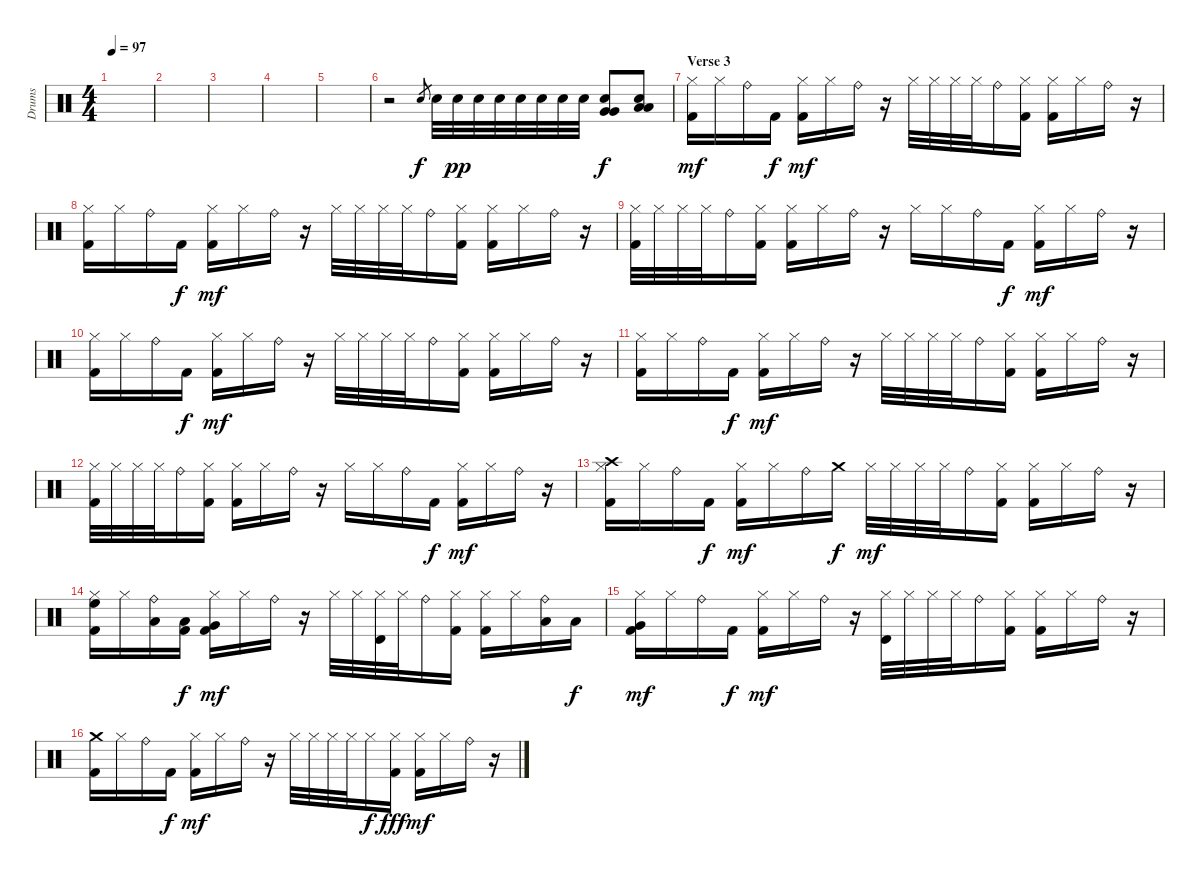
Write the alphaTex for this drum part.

\track ("Drums" "Drums") {instrument percussion}
\staff {score}
\articulation defaults
\ts (4 4)
\tempo 97
\clef neutral
\ks c
|
|
|
|
|
r.2 "Electric Snare (hit)".8{gr} "Electric Snare (hit)".32 "Electric Snare (hit)".32{dy pp} "Electric Snare (hit)".32 "Electric Snare (hit)".32 "Electric Snare (hit)".32 "Electric Snare (hit)".32 "Electric Snare (hit)".32 "Electric Snare (hit)".32 ("Electric Snare (hit)" "Very Low Tom (hit)" "Very Low Tom (hit)").8{dy f} ("Electric Snare (hit)" "Low Tom (hit)" "Low Tom (hit)").8 |
\section ("" "Verse 3")
("Hi-Hat (closed)" "Kick (hit) 2").16{dy mf} "Hi-Hat (closed)".16 "Ride (bell)".16 "Kick (hit) 2".16{dy f} ("Hi-Hat (closed)" "Kick (hit) 2").16{dy mf} "Hi-Hat (closed)".16 "Ride (bell)".16 r.16 "Hi-Hat (closed)".32 "Hi-Hat (closed)".32 "Hi-Hat (closed)".32 "Hi-Hat (closed)".32 "Ride (bell)".16 ("Hi-Hat (closed)" "Kick (hit) 2").16 ("Hi-Hat (closed)" "Kick (hit) 2").16 "Hi-Hat (closed)".16 "Ride (bell)".16 r.16 |
("Hi-Hat (closed)" "Kick (hit) 2").16 "Hi-Hat (closed)".16 "Ride (bell)".16 "Kick (hit) 2".16{dy f} ("Hi-Hat (closed)" "Kick (hit) 2").16{dy mf} "Hi-Hat (closed)".16 "Ride (bell)".16 r.16 "Hi-Hat (closed)".32 "Hi-Hat (closed)".32 "Hi-Hat (closed)".32 "Hi-Hat (closed)".32 "Ride (bell)".16 ("Hi-Hat (closed)" "Kick (hit) 2").16 ("Hi-Hat (closed)" "Kick (hit) 2").16 "Hi-Hat (closed)".16 "Ride (bell)".16 r.16 |
("Hi-Hat (closed)" "Kick (hit) 2").32 "Hi-Hat (closed)".32 "Hi-Hat (closed)".32 "Hi-Hat (closed)".32 "Ride (bell)".16 ("Hi-Hat (closed)" "Kick (hit) 2").16 ("Hi-Hat (closed)" "Kick (hit) 2").16 "Hi-Hat (closed)".16 "Ride (bell)".16 r.16 "Hi-Hat (closed)".16 "Hi-Hat (closed)".16 "Ride (bell)".16 "Kick (hit) 2".16{dy f} ("Hi-Hat (closed)" "Kick (hit) 2").16{dy mf} "Hi-Hat (closed)".16 "Ride (bell)".16 r.16 |
("Hi-Hat (closed)" "Kick (hit) 2").16 "Hi-Hat (closed)".16 "Ride (bell)".16 "Kick (hit) 2".16{dy f} ("Hi-Hat (closed)" "Kick (hit) 2").16{dy mf} "Hi-Hat (closed)".16 "Ride (bell)".16 r.16 "Hi-Hat (closed)".32 "Hi-Hat (closed)".32 "Hi-Hat (closed)".32 "Hi-Hat (closed)".32 "Ride (bell)".16 ("Hi-Hat (closed)" "Kick (hit) 2").16 ("Hi-Hat (closed)" "Kick (hit) 2").16 "Hi-Hat (closed)".16 "Ride (bell)".16 r.16 |
("Hi-Hat (closed)" "Kick (hit) 2").16 "Hi-Hat (closed)".16 "Ride (bell)".16 "Kick (hit) 2".16{dy f} ("Hi-Hat (closed)" "Kick (hit) 2").16{dy mf} "Hi-Hat (closed)".16 "Ride (bell)".16 r.16 "Hi-Hat (closed)".32 "Hi-Hat (closed)".32 "Hi-Hat (closed)".32 "Hi-Hat (closed)".32 "Ride (bell)".16 ("Hi-Hat (closed)" "Kick (hit) 2").16 ("Hi-Hat (closed)" "Kick (hit) 2").16 "Hi-Hat (closed)".16 "Ride (bell)".16 r.16 |
("Hi-Hat (closed)" "Kick (hit) 2").32 "Hi-Hat (closed)".32 "Hi-Hat (closed)".32 "Hi-Hat (closed)".32 "Ride (bell)".16 ("Hi-Hat (closed)" "Kick (hit) 2").16 ("Hi-Hat (closed)" "Kick (hit) 2").16 "Hi-Hat (closed)".16 "Ride (bell)".16 r.16 "Hi-Hat (closed)".16 "Hi-Hat (closed)".16 "Ride (bell)".16 "Kick (hit) 2".16{dy f} ("Hi-Hat (closed)" "Kick (hit) 2").16{dy mf} "Hi-Hat (closed)".16 "Ride (bell)".16 r.16 |
("Hi-Hat (closed)" "Crash high (hit)" "Kick (hit) 2").16 "Hi-Hat (closed)".16 "Ride (bell)".16 "Kick (hit) 2".16{dy f} ("Hi-Hat (closed)" "Kick (hit) 2").16{dy mf} "Hi-Hat (closed)".16 "Ride (bell)".16 "Crash medium (hit)".16{dy f} "Hi-Hat (closed)".32{dy mf} "Hi-Hat (closed)".32 "Hi-Hat (closed)".32 "Hi-Hat (closed)".32 "Ride (bell)".16 ("Hi-Hat (closed)" "Kick (hit) 2").16 ("Hi-Hat (closed)" "Kick (hit) 2").16 "Hi-Hat (closed)".16 "Ride (bell)".16 r.16 |
("Hi-Hat (closed)" "High Floor Tom (hit)" "Kick (hit) 2").16 "Hi-Hat (closed)".16 ("Ride (bell)" "Low Tom (hit)").16 ("Low Tom (hit)" "Kick (hit) 2").16{dy f} ("Hi-Hat (closed)" "Very Low Tom (hit)" "Kick (hit) 2").16{dy mf} "Hi-Hat (closed)".16 "Ride (bell)".16 r.16 "Hi-Hat (closed)".32 "Hi-Hat (closed)".32 ("Hi-Hat (closed)" "Timbale high (hit)").32 "Hi-Hat (closed)".32 "Ride (bell)".16 ("Hi-Hat (closed)" "Kick (hit) 2").16 ("Hi-Hat (closed)" "Kick (hit) 2").16 "Hi-Hat (closed)".16 ("Ride (bell)" "Low Tom (hit)").16 "Low Tom (hit)".16{dy f} |
("Hi-Hat (closed)" "Very Low Tom (hit)" "Kick (hit) 2").16{dy mf} "Hi-Hat (closed)".16 "Ride (bell)".16 "Kick (hit) 2".16{dy f} ("Hi-Hat (closed)" "Kick (hit) 2").16{dy mf} "Hi-Hat (closed)".16 "Ride (bell)".16 r.16 ("Hi-Hat (closed)" "Timbale high (hit)").32 "Hi-Hat (closed)".32 "Hi-Hat (closed)".32 "Hi-Hat (closed)".32 "Ride (bell)".16 ("Hi-Hat (closed)" "Kick (hit) 2").16 ("Hi-Hat (closed)" "Kick (hit) 2").16 "Hi-Hat (closed)".16 "Ride (bell)".16 r.16 |
("Crash medium (hit)" "Kick (hit) 2").16 "Hi-Hat (closed)".16 "Ride (bell)".16 "Kick (hit) 2".16{dy f} ("Hi-Hat (closed)" "Kick (hit) 2").16{dy mf} "Hi-Hat (closed)".16 "Ride (bell)".16 r.16 "Hi-Hat (closed)".32 "Hi-Hat (closed)".32 "Hi-Hat (closed)".32 "Hi-Hat (closed)".32 "Hi-Hat (closed)".16{dy f} ("Hi-Hat (closed)" "Kick (hit) 2").16{dy fff} ("Hi-Hat (closed)" "Kick (hit) 2").16{dy mf} "Hi-Hat (closed)".16 "Ride (bell)".16 r.16
